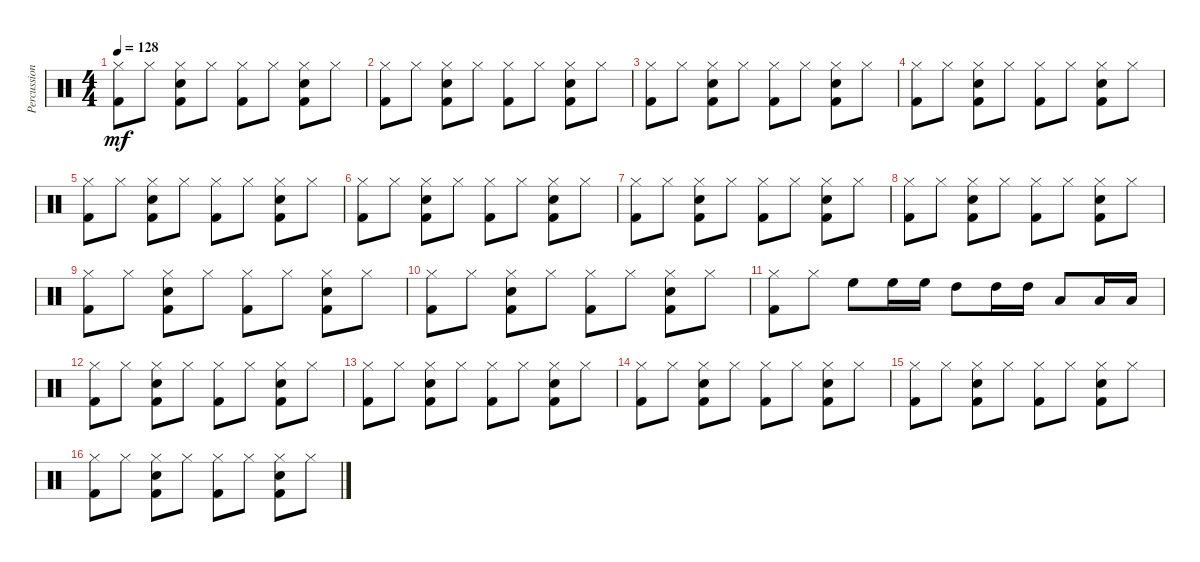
\track ("Percussions" "Percussion") {instrument percussion}
\staff {score}
\articulation defaults
\ts (4 4)
\tempo 128
\clef neutral
\ks c
("Kick (hit) 2" "Hi-Hat (closed)").8{dy mf} "Hi-Hat (closed)".8 ("Kick (hit) 2" "Hi-Hat (closed)" "Snare (hit) 2").8 "Hi-Hat (closed)".8 ("Kick (hit) 2" "Hi-Hat (closed)").8 "Hi-Hat (closed)".8 ("Kick (hit) 2" "Hi-Hat (closed)" "Snare (hit) 2").8 "Hi-Hat (closed)".8 |
("Kick (hit) 2" "Hi-Hat (closed)").8 "Hi-Hat (closed)".8 ("Kick (hit) 2" "Hi-Hat (closed)" "Snare (hit) 2").8 "Hi-Hat (closed)".8 ("Kick (hit) 2" "Hi-Hat (closed)").8 "Hi-Hat (closed)".8 ("Kick (hit) 2" "Hi-Hat (closed)" "Snare (hit) 2").8 "Hi-Hat (closed)".8 |
("Kick (hit) 2" "Hi-Hat (closed)").8 "Hi-Hat (closed)".8 ("Kick (hit) 2" "Hi-Hat (closed)" "Snare (hit) 2").8 "Hi-Hat (closed)".8 ("Kick (hit) 2" "Hi-Hat (closed)").8 "Hi-Hat (closed)".8 ("Kick (hit) 2" "Hi-Hat (closed)" "Snare (hit) 2").8 "Hi-Hat (closed)".8 |
("Kick (hit) 2" "Hi-Hat (closed)").8 "Hi-Hat (closed)".8 ("Kick (hit) 2" "Hi-Hat (closed)" "Snare (hit) 2").8 "Hi-Hat (closed)".8 ("Kick (hit) 2" "Hi-Hat (closed)").8 "Hi-Hat (closed)".8 ("Kick (hit) 2" "Hi-Hat (closed)" "Snare (hit) 2").8 "Hi-Hat (closed)".8 |
("Kick (hit) 2" "Hi-Hat (closed)").8 "Hi-Hat (closed)".8 ("Kick (hit) 2" "Hi-Hat (closed)" "Snare (hit) 2").8 "Hi-Hat (closed)".8 ("Kick (hit) 2" "Hi-Hat (closed)").8 "Hi-Hat (closed)".8 ("Kick (hit) 2" "Hi-Hat (closed)" "Snare (hit) 2").8 "Hi-Hat (closed)".8 |
("Kick (hit) 2" "Hi-Hat (closed)").8 "Hi-Hat (closed)".8 ("Kick (hit) 2" "Hi-Hat (closed)" "Snare (hit) 2").8 "Hi-Hat (closed)".8 ("Kick (hit) 2" "Hi-Hat (closed)").8 "Hi-Hat (closed)".8 ("Kick (hit) 2" "Hi-Hat (closed)" "Snare (hit) 2").8 "Hi-Hat (closed)".8 |
("Kick (hit) 2" "Hi-Hat (closed)").8 "Hi-Hat (closed)".8 ("Kick (hit) 2" "Hi-Hat (closed)" "Snare (hit) 2").8 "Hi-Hat (closed)".8 ("Kick (hit) 2" "Hi-Hat (closed)").8 "Hi-Hat (closed)".8 ("Kick (hit) 2" "Hi-Hat (closed)" "Snare (hit) 2").8 "Hi-Hat (closed)".8 |
("Kick (hit) 2" "Hi-Hat (closed)").8 "Hi-Hat (closed)".8 ("Kick (hit) 2" "Hi-Hat (closed)" "Snare (hit) 2").8 "Hi-Hat (closed)".8 ("Kick (hit) 2" "Hi-Hat (closed)").8 "Hi-Hat (closed)".8 ("Kick (hit) 2" "Hi-Hat (closed)" "Snare (hit) 2").8 "Hi-Hat (closed)".8 |
("Kick (hit) 2" "Hi-Hat (closed)").8 "Hi-Hat (closed)".8 ("Kick (hit) 2" "Hi-Hat (closed)" "Snare (hit) 2").8 "Hi-Hat (closed)".8 ("Kick (hit) 2" "Hi-Hat (closed)").8 "Hi-Hat (closed)".8 ("Kick (hit) 2" "Hi-Hat (closed)" "Snare (hit) 2").8 "Hi-Hat (closed)".8 |
("Kick (hit) 2" "Hi-Hat (closed)").8 "Hi-Hat (closed)".8 ("Kick (hit) 2" "Hi-Hat (closed)" "Snare (hit) 2").8 "Hi-Hat (closed)".8 ("Kick (hit) 2" "Hi-Hat (closed)").8 "Hi-Hat (closed)".8 ("Kick (hit) 2" "Hi-Hat (closed)" "Snare (hit) 2").8 "Hi-Hat (closed)".8 |
("Kick (hit) 2" "Hi-Hat (closed)").8 "Hi-Hat (closed)".8 "High Floor Tom (hit)".8 "High Floor Tom (hit)".16 "High Floor Tom (hit)".16 "High Tom (hit)".8 "High Tom (hit)".16 "High Tom (hit)".16 "Low Tom (hit)".8 "Low Floor Tom (hit)".16 "Low Floor Tom (hit)".16 |
("Kick (hit) 2" "Hi-Hat (closed)").8 "Hi-Hat (closed)".8 ("Kick (hit) 2" "Hi-Hat (closed)" "Snare (hit) 2").8 "Hi-Hat (closed)".8 ("Kick (hit) 2" "Hi-Hat (closed)").8 "Hi-Hat (closed)".8 ("Kick (hit) 2" "Hi-Hat (closed)" "Snare (hit) 2").8 "Hi-Hat (closed)".8 |
("Kick (hit) 2" "Hi-Hat (closed)").8 "Hi-Hat (closed)".8 ("Kick (hit) 2" "Hi-Hat (closed)" "Snare (hit) 2").8 "Hi-Hat (closed)".8 ("Kick (hit) 2" "Hi-Hat (closed)").8 "Hi-Hat (closed)".8 ("Kick (hit) 2" "Hi-Hat (closed)" "Snare (hit) 2").8 "Hi-Hat (closed)".8 |
("Kick (hit) 2" "Hi-Hat (closed)").8 "Hi-Hat (closed)".8 ("Kick (hit) 2" "Hi-Hat (closed)" "Snare (hit) 2").8 "Hi-Hat (closed)".8 ("Kick (hit) 2" "Hi-Hat (closed)").8 "Hi-Hat (closed)".8 ("Kick (hit) 2" "Hi-Hat (closed)" "Snare (hit) 2").8 "Hi-Hat (closed)".8 |
("Kick (hit) 2" "Hi-Hat (closed)").8 "Hi-Hat (closed)".8 ("Kick (hit) 2" "Hi-Hat (closed)" "Snare (hit) 2").8 "Hi-Hat (closed)".8 ("Kick (hit) 2" "Hi-Hat (closed)").8 "Hi-Hat (closed)".8 ("Kick (hit) 2" "Hi-Hat (closed)" "Snare (hit) 2").8 "Hi-Hat (closed)".8 |
("Kick (hit) 2" "Hi-Hat (closed)").8 "Hi-Hat (closed)".8 ("Kick (hit) 2" "Hi-Hat (closed)" "Snare (hit) 2").8 "Hi-Hat (closed)".8 ("Kick (hit) 2" "Hi-Hat (closed)").8 "Hi-Hat (closed)".8 ("Kick (hit) 2" "Hi-Hat (closed)" "Snare (hit) 2").8 "Hi-Hat (closed)".8
